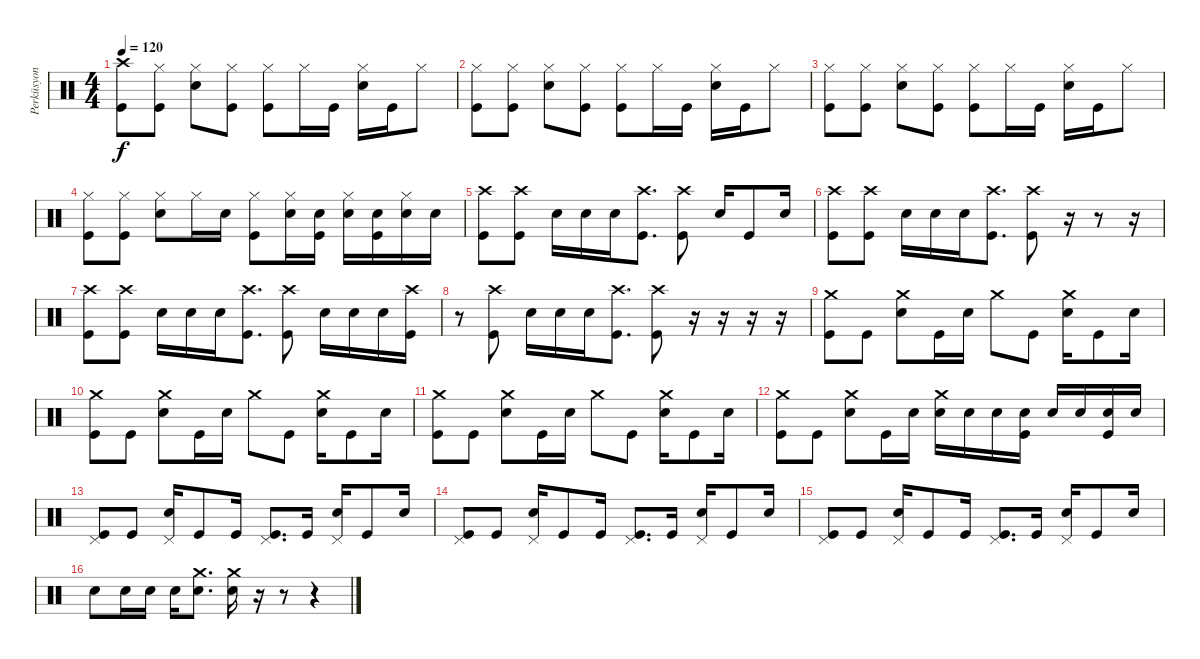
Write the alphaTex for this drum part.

\track ("Perküsyon" "Perküsyon") {instrument percussion}
\staff {score}
\articulation defaults
\ts (4 4)
\tempo 120
\clef neutral
\ks c
("Kick (hit)" "Crash high (hit)").8{dy f} ("Kick (hit)" "Hi-Hat (closed)").8 ("Snare (hit) 2" "Hi-Hat (closed)").8 ("Kick (hit)" "Hi-Hat (closed)").8 ("Kick (hit)" "Hi-Hat (closed)").8 "Hi-Hat (closed)".16 "Kick (hit)".16 ("Snare (hit) 2" "Hi-Hat (closed)").16 "Kick (hit)".16 "Hi-Hat (closed)".8 |
("Kick (hit)" "Hi-Hat (closed)").8 ("Kick (hit)" "Hi-Hat (closed)").8 ("Snare (hit) 2" "Hi-Hat (closed)").8 ("Kick (hit)" "Hi-Hat (closed)").8 ("Kick (hit)" "Hi-Hat (closed)").8 "Hi-Hat (closed)".16 "Kick (hit)".16 ("Snare (hit) 2" "Hi-Hat (closed)").16 "Kick (hit)".16 "Hi-Hat (closed)".8 |
("Kick (hit)" "Hi-Hat (closed)").8 ("Kick (hit)" "Hi-Hat (closed)").8 ("Snare (hit) 2" "Hi-Hat (closed)").8 ("Kick (hit)" "Hi-Hat (closed)").8 ("Kick (hit)" "Hi-Hat (closed)").8 "Hi-Hat (closed)".16 "Kick (hit)".16 ("Snare (hit) 2" "Hi-Hat (closed)").16 "Kick (hit)".16 "Hi-Hat (closed)".8 |
("Kick (hit)" "Hi-Hat (closed)").8 ("Kick (hit)" "Hi-Hat (closed)").8 ("Snare (hit) 2" "Hi-Hat (closed)").8 "Hi-Hat (closed)".16 "Snare (hit) 2".16 ("Kick (hit)" "Hi-Hat (closed)").8 ("Snare (hit) 2" "Hi-Hat (closed)").16 ("Kick (hit)" "Snare (hit) 2").16 ("Snare (hit) 2" "Hi-Hat (closed)").16 ("Kick (hit)" "Snare (hit) 2").16 ("Snare (hit) 2" "Hi-Hat (closed)").16 "Snare (hit) 2".16 |
("Kick (hit)" "Crash high (hit)").8 ("Kick (hit)" "Crash high (hit)").8 "Snare (hit) 2".16 "Snare (hit) 2".16 "Snare (hit) 2".16 ("Kick (hit)" "Crash high (hit)").8{d} ("Kick (hit)" "Crash high (hit)").8 "Snare (hit) 2".16 "Kick (hit)".8 "Snare (hit) 2".16 |
("Kick (hit)" "Crash high (hit)").8 ("Kick (hit)" "Crash high (hit)").8 "Snare (hit) 2".16 "Snare (hit) 2".16 "Snare (hit) 2".16 ("Kick (hit)" "Crash high (hit)").8{d} ("Kick (hit)" "Crash high (hit)").8 r.16 r.8 r.16 |
("Kick (hit)" "Crash high (hit)").8 ("Kick (hit)" "Crash high (hit)").8 "Snare (hit) 2".16 "Snare (hit) 2".16 "Snare (hit) 2".16 ("Kick (hit)" "Crash high (hit)").8{d} ("Kick (hit)" "Crash high (hit)").8 "Snare (hit) 2".16 "Snare (hit) 2".16 "Snare (hit) 2".16 ("Kick (hit)" "Crash high (hit)").16 |
r.8 ("Kick (hit)" "Crash high (hit)").8 "Snare (hit) 2".16 "Snare (hit) 2".16 "Snare (hit) 2".16 ("Kick (hit)" "Crash high (hit)").8{d} ("Kick (hit)" "Crash high (hit)").8 r.16 r.16 r.16 r.16 |
("Kick (hit)" "Crash medium (hit)").8 "Kick (hit)".8 ("Snare (hit) 2" "Crash medium (hit)").8 "Kick (hit)".16 "Snare (hit) 2".16 "Crash medium (hit)".8 "Kick (hit)".8 ("Snare (hit) 2" "Crash medium (hit)").16 "Kick (hit)".8 "Snare (hit) 2".16 |
("Kick (hit)" "Crash medium (hit)").8 "Kick (hit)".8 ("Snare (hit) 2" "Crash medium (hit)").8 "Kick (hit)".16 "Snare (hit) 2".16 "Crash medium (hit)".8 "Kick (hit)".8 ("Snare (hit) 2" "Crash medium (hit)").16 "Kick (hit)".8 "Snare (hit) 2".16 |
("Kick (hit)" "Crash medium (hit)").8 "Kick (hit)".8 ("Snare (hit) 2" "Crash medium (hit)").8 "Kick (hit)".16 "Snare (hit) 2".16 "Crash medium (hit)".8 "Kick (hit)".8 ("Snare (hit) 2" "Crash medium (hit)").16 "Kick (hit)".8 "Snare (hit) 2".16 |
("Kick (hit)" "Crash medium (hit)").8 "Kick (hit)".8 ("Snare (hit) 2" "Crash medium (hit)").8 "Kick (hit)".16 "Snare (hit) 2".16 ("Snare (hit) 2" "Crash medium (hit)").16 "Snare (hit) 2".16 "Snare (hit) 2".16 ("Kick (hit)" "Snare (hit) 2").16 "Snare (hit) 2".16 "Snare (hit) 2".16 ("Kick (hit)" "Snare (hit) 2").16 "Snare (hit) 2".16 |
("Kick (hit)" "Pedal Hi-Hat (hit)").8 "Kick (hit)".8 ("Snare (hit) 2" "Pedal Hi-Hat (hit)").16 "Kick (hit)".8 "Kick (hit)".16 ("Kick (hit)" "Pedal Hi-Hat (hit)").8{d} "Kick (hit)".16 ("Snare (hit) 2" "Pedal Hi-Hat (hit)").16 "Kick (hit)".8 "Snare (hit) 2".16 |
("Kick (hit)" "Pedal Hi-Hat (hit)").8 "Kick (hit)".8 ("Snare (hit) 2" "Pedal Hi-Hat (hit)").16 "Kick (hit)".8 "Kick (hit)".16 ("Kick (hit)" "Pedal Hi-Hat (hit)").8{d} "Kick (hit)".16 ("Snare (hit) 2" "Pedal Hi-Hat (hit)").16 "Kick (hit)".8 "Snare (hit) 2".16 |
("Kick (hit)" "Pedal Hi-Hat (hit)").8 "Kick (hit)".8 ("Snare (hit) 2" "Pedal Hi-Hat (hit)").16 "Kick (hit)".8 "Kick (hit)".16 ("Kick (hit)" "Pedal Hi-Hat (hit)").8{d} "Kick (hit)".16 ("Snare (hit) 2" "Pedal Hi-Hat (hit)").16 "Kick (hit)".8 "Snare (hit) 2".16 |
"Snare (hit) 2".8 "Snare (hit) 2".16 "Snare (hit) 2".16 "Snare (hit) 2".16 ("Snare (hit) 2" "Crash medium (hit)").8{d} ("Snare (hit) 2" "Crash medium (hit)").16 r.16 r.8 r.4
